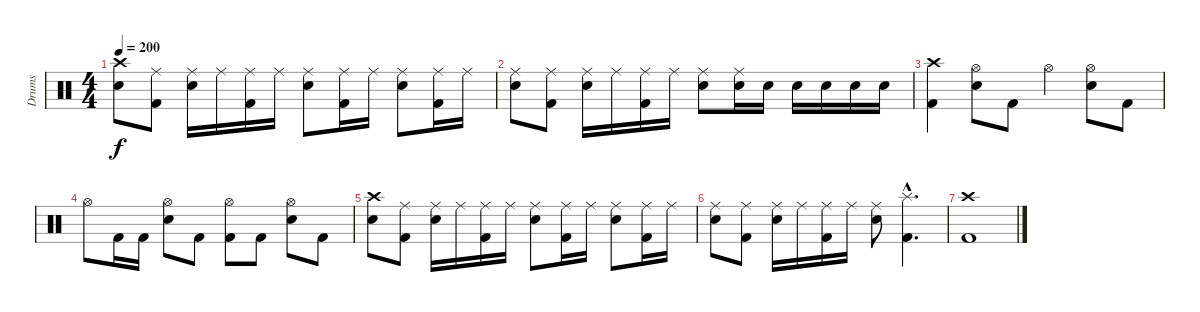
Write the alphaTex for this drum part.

\track ("Drums" "Drums") {instrument percussion}
\staff {score}
\articulation defaults
\ts (4 4)
\tempo 200
\clef neutral
\ks c
("Electric Snare (hit)" "Crash high (hit)").8{dy f} ("Kick (hit) 2" "Ride (middle)").8 ("Electric Snare (hit)" "Ride (middle)").16 "Ride (middle)".16 ("Kick (hit) 2" "Ride (middle)").16 "Ride (middle)".16 ("Electric Snare (hit)" "Ride (middle)").8 ("Kick (hit) 2" "Ride (middle)").16 "Ride (middle)".16 ("Electric Snare (hit)" "Ride (middle)").8 ("Kick (hit) 2" "Ride (middle)").16 "Ride (middle)".16 |
("Electric Snare (hit)" "Ride (middle)").8 ("Kick (hit) 2" "Ride (middle)").8 ("Electric Snare (hit)" "Ride (middle)").16 "Ride (middle)".16 ("Kick (hit) 2" "Ride (middle)").16 "Ride (middle)".16 ("Electric Snare (hit)" "Ride (middle)").8 ("Electric Snare (hit)" "Ride (middle)").16 "Electric Snare (hit)".16 "Electric Snare (hit)".16 "Electric Snare (hit)".16 "Electric Snare (hit)".16 "Electric Snare (hit)".16 |
("Kick (hit) 2" "Crash high (hit)").4 ("Electric Snare (hit)" "Hi-Hat (open)").8 "Kick (hit) 2".8 "Hi-Hat (open)".4 ("Electric Snare (hit)" "Hi-Hat (open)").8 "Kick (hit) 2".8 |
"Hi-Hat (open)".8 "Kick (hit) 2".16 "Kick (hit) 2".16 ("Electric Snare (hit)" "Hi-Hat (open)").8 "Kick (hit) 2".8 ("Kick (hit) 2" "Hi-Hat (open)").8 "Kick (hit) 2".8 ("Electric Snare (hit)" "Hi-Hat (open)").8 "Kick (hit) 2".8 |
("Electric Snare (hit)" "Crash high (hit)").8 ("Kick (hit) 2" "Ride (middle)").8 ("Electric Snare (hit)" "Ride (middle)").16 "Ride (middle)".16 ("Kick (hit) 2" "Ride (middle)").16 "Ride (middle)".16 ("Electric Snare (hit)" "Ride (middle)").8 ("Kick (hit) 2" "Ride (middle)").16 "Ride (middle)".16 ("Electric Snare (hit)" "Ride (middle)").8 ("Kick (hit) 2" "Ride (middle)").16 "Ride (middle)".16 |
("Electric Snare (hit)" "Ride (middle)").8 ("Kick (hit) 2" "Ride (middle)").8 ("Electric Snare (hit)" "Ride (middle)").16 "Ride (middle)".16 ("Kick (hit) 2" "Ride (middle)").16 "Ride (middle)".16 ("Electric Snare (hit)" "Ride (middle)").8 ("Kick (hit) 2"{hac} "Splash (hit)"{hac}).4{d} |
("Kick (hit) 2" "Crash high (hit)").1
